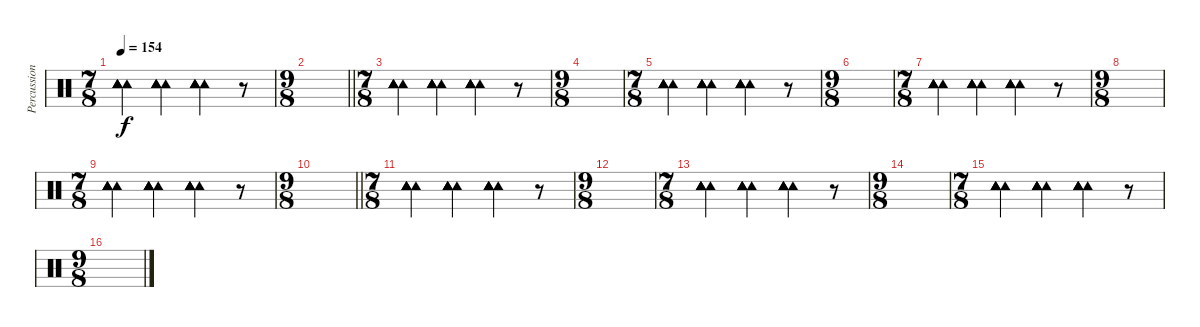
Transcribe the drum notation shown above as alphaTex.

\track ("Percussions" "Percussion") {instrument percussion}
\staff {score}
\articulation defaults
\ts (7 8)
\tempo 154
\clef neutral
\ks c
("Tambourine (hit)" "Tambourine (hit)" "Tambourine (hit)" "Tambourine (hit)" "Tambourine (hit)").4{dy f} ("Tambourine (hit)" "Tambourine (hit)" "Tambourine (hit)" "Tambourine (hit)" "Tambourine (hit)").4 ("Tambourine (hit)" "Tambourine (hit)" "Tambourine (hit)" "Tambourine (hit)" "Tambourine (hit)").4 r.8 |
\ts (9 8)
\barLineRight lightlight
|
\ts (7 8)
("Tambourine (hit)" "Tambourine (hit)" "Tambourine (hit)" "Tambourine (hit)" "Tambourine (hit)").4 ("Tambourine (hit)" "Tambourine (hit)" "Tambourine (hit)" "Tambourine (hit)" "Tambourine (hit)").4 ("Tambourine (hit)" "Tambourine (hit)" "Tambourine (hit)" "Tambourine (hit)" "Tambourine (hit)").4 r.8 |
\ts (9 8)
|
\ts (7 8)
("Tambourine (hit)" "Tambourine (hit)" "Tambourine (hit)" "Tambourine (hit)" "Tambourine (hit)").4 ("Tambourine (hit)" "Tambourine (hit)" "Tambourine (hit)" "Tambourine (hit)" "Tambourine (hit)").4 ("Tambourine (hit)" "Tambourine (hit)" "Tambourine (hit)" "Tambourine (hit)" "Tambourine (hit)").4 r.8 |
\ts (9 8)
|
\ts (7 8)
("Tambourine (hit)" "Tambourine (hit)" "Tambourine (hit)" "Tambourine (hit)" "Tambourine (hit)").4 ("Tambourine (hit)" "Tambourine (hit)" "Tambourine (hit)" "Tambourine (hit)" "Tambourine (hit)").4 ("Tambourine (hit)" "Tambourine (hit)" "Tambourine (hit)" "Tambourine (hit)" "Tambourine (hit)").4 r.8 |
\ts (9 8)
|
\ts (7 8)
("Tambourine (hit)" "Tambourine (hit)" "Tambourine (hit)" "Tambourine (hit)" "Tambourine (hit)").4 ("Tambourine (hit)" "Tambourine (hit)" "Tambourine (hit)" "Tambourine (hit)" "Tambourine (hit)").4 ("Tambourine (hit)" "Tambourine (hit)" "Tambourine (hit)" "Tambourine (hit)" "Tambourine (hit)").4 r.8 |
\ts (9 8)
\barLineRight lightlight
|
\ts (7 8)
("Tambourine (hit)" "Tambourine (hit)" "Tambourine (hit)" "Tambourine (hit)" "Tambourine (hit)").4 ("Tambourine (hit)" "Tambourine (hit)" "Tambourine (hit)" "Tambourine (hit)" "Tambourine (hit)").4 ("Tambourine (hit)" "Tambourine (hit)" "Tambourine (hit)" "Tambourine (hit)" "Tambourine (hit)").4 r.8 |
\ts (9 8)
|
\ts (7 8)
("Tambourine (hit)" "Tambourine (hit)" "Tambourine (hit)" "Tambourine (hit)" "Tambourine (hit)").4 ("Tambourine (hit)" "Tambourine (hit)" "Tambourine (hit)" "Tambourine (hit)" "Tambourine (hit)").4 ("Tambourine (hit)" "Tambourine (hit)" "Tambourine (hit)" "Tambourine (hit)" "Tambourine (hit)").4 r.8 |
\ts (9 8)
|
\ts (7 8)
("Tambourine (hit)" "Tambourine (hit)" "Tambourine (hit)" "Tambourine (hit)" "Tambourine (hit)").4 ("Tambourine (hit)" "Tambourine (hit)" "Tambourine (hit)" "Tambourine (hit)" "Tambourine (hit)").4 ("Tambourine (hit)" "Tambourine (hit)" "Tambourine (hit)" "Tambourine (hit)" "Tambourine (hit)").4 r.8 |
\ts (9 8)
